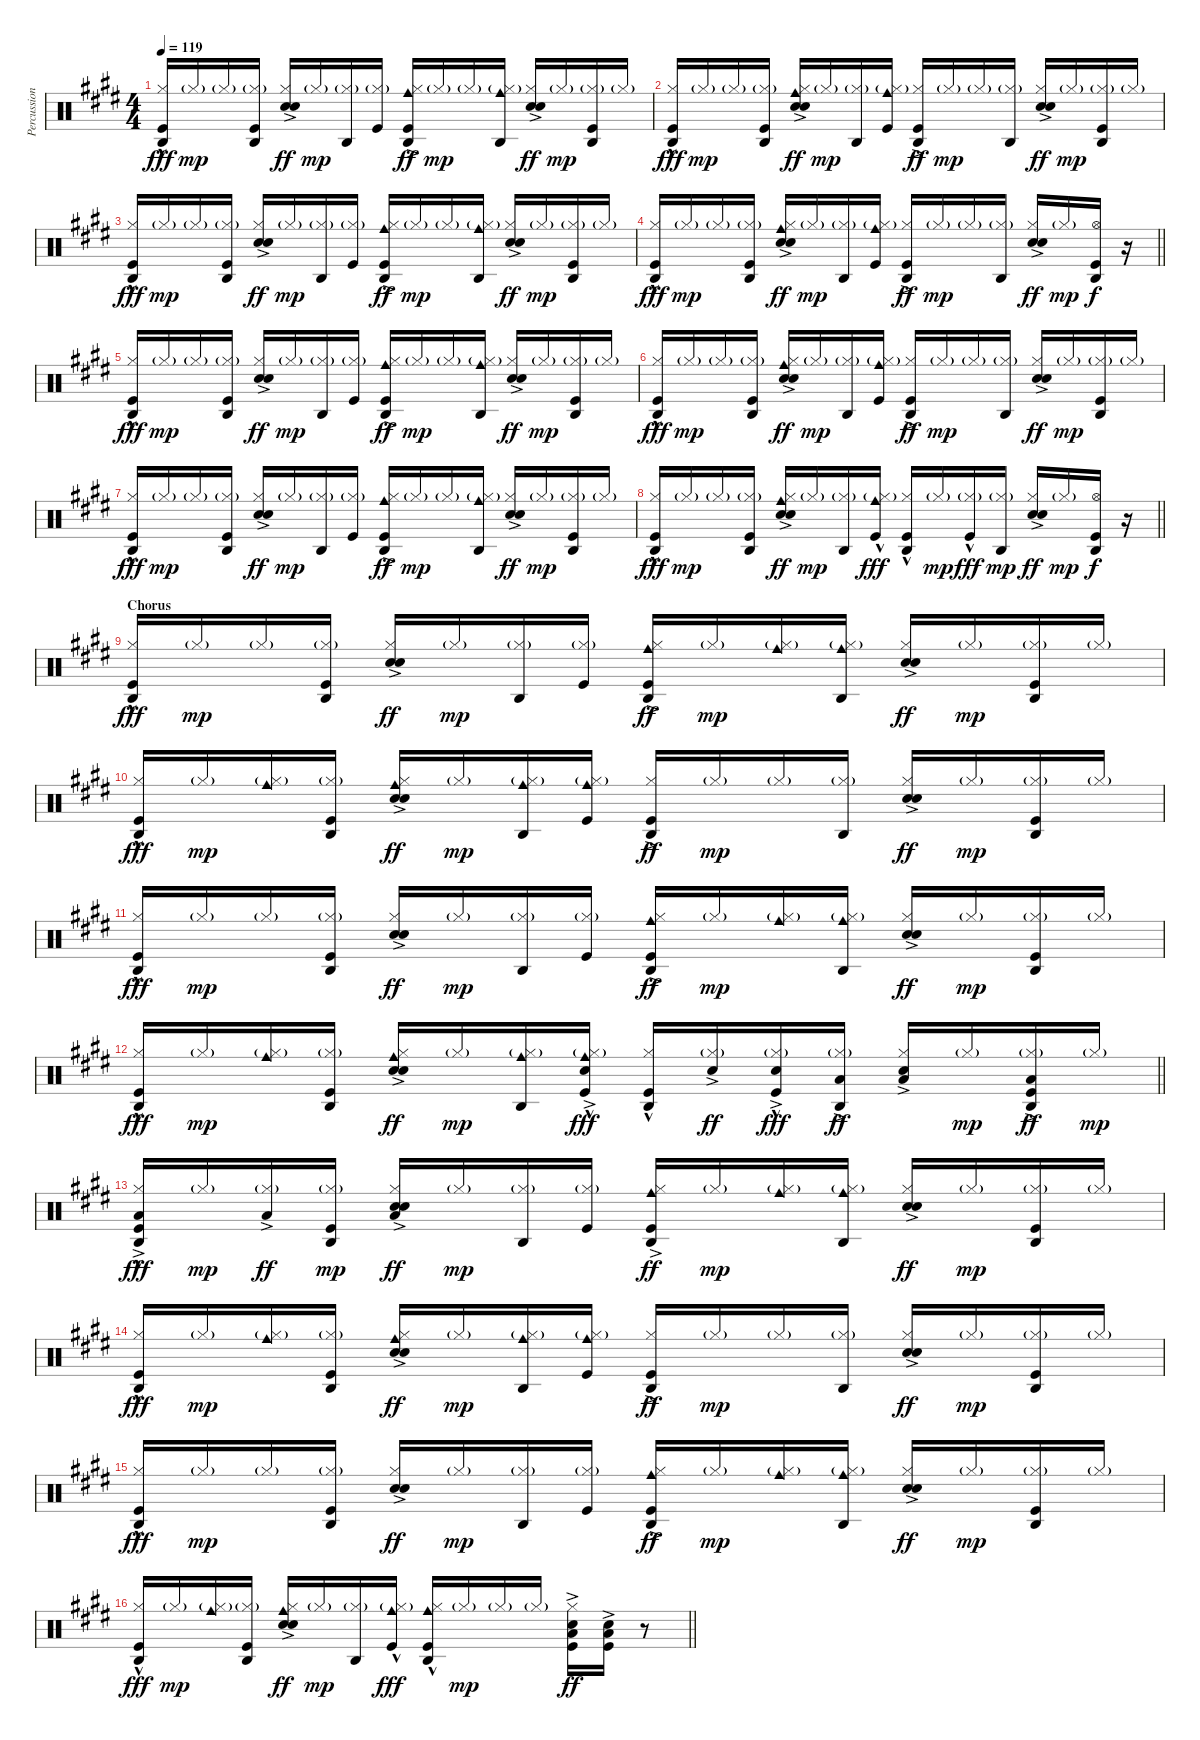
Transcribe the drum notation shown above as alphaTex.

\track ("Percussion" "Percussion") {instrument percussion}
\staff {score}
\articulation defaults
\ts (4 4)
\tempo 119
\clef neutral
\ks e
("Agogo high (hit)" "Hi-Hat (closed)" "Kick (hit)"{hac}).16{dy fff} "Hi-Hat (closed)"{g}.16{dy mp} "Hi-Hat (closed)"{g}.16 ("Agogo high (hit)" "Hi-Hat (closed)"{g} "Kick (hit)").16 ("Hi-Hat (closed)" "Hand Clap (hit)"{ac} "Snare (hit) 2"{ac}).16{dy ff} "Hi-Hat (closed)"{g}.16{dy mp} ("Agogo high (hit)" "Hi-Hat (closed)"{g}).16 ("Hi-Hat (closed)"{g} "Kick (hit)").16 ("Agogo high (hit)" "Cowbell medium (hit)" "Hi-Hat (closed)" "Kick (hit)"{ac}).16{dy ff} "Hi-Hat (closed)"{g}.16{dy mp} "Hi-Hat (closed)"{g}.16 ("Agogo high (hit)" "Cowbell medium (hit)" "Hi-Hat (closed)"{g}).16 ("Hi-Hat (closed)" "Hand Clap (hit)"{ac} "Snare (hit) 2"{ac}).16{dy ff} "Hi-Hat (closed)"{g}.16{dy mp} ("Agogo high (hit)" "Hi-Hat (closed)"{g} "Kick (hit)").16 "Hi-Hat (closed)"{g}.16 |
("Agogo high (hit)" "Hi-Hat (closed)" "Kick (hit)"{hac}).16{dy fff} "Hi-Hat (closed)"{g}.16{dy mp} "Hi-Hat (closed)"{g}.16 ("Agogo high (hit)" "Hi-Hat (closed)"{g} "Kick (hit)").16 ("Cowbell medium (hit)" "Hi-Hat (closed)" "Hand Clap (hit)"{ac} "Snare (hit) 2"{ac}).16{dy ff} "Hi-Hat (closed)"{g}.16{dy mp} ("Agogo high (hit)" "Hi-Hat (closed)"{g}).16 ("Cowbell medium (hit)" "Hi-Hat (closed)"{g} "Kick (hit)").16 ("Agogo high (hit)" "Hi-Hat (closed)" "Kick (hit)"{ac}).16{dy ff} "Hi-Hat (closed)"{g}.16{dy mp} "Hi-Hat (closed)"{g}.16 ("Agogo high (hit)" "Hi-Hat (closed)"{g}).16 ("Hi-Hat (closed)" "Hand Clap (hit)"{ac} "Snare (hit) 2"{ac}).16{dy ff} "Hi-Hat (closed)"{g}.16{dy mp} ("Agogo high (hit)" "Hi-Hat (closed)"{g} "Kick (hit)").16 "Hi-Hat (closed)"{g}.16 |
("Agogo high (hit)" "Hi-Hat (closed)" "Kick (hit)"{hac}).16{dy fff} "Hi-Hat (closed)"{g}.16{dy mp} "Hi-Hat (closed)"{g}.16 ("Agogo high (hit)" "Hi-Hat (closed)"{g} "Kick (hit)").16 ("Hi-Hat (closed)" "Hand Clap (hit)"{ac} "Snare (hit) 2"{ac}).16{dy ff} "Hi-Hat (closed)"{g}.16{dy mp} ("Agogo high (hit)" "Hi-Hat (closed)"{g}).16 ("Hi-Hat (closed)"{g} "Kick (hit)").16 ("Agogo high (hit)" "Cowbell medium (hit)" "Hi-Hat (closed)" "Kick (hit)"{ac}).16{dy ff} "Hi-Hat (closed)"{g}.16{dy mp} "Hi-Hat (closed)"{g}.16 ("Agogo high (hit)" "Cowbell medium (hit)" "Hi-Hat (closed)"{g}).16 ("Hi-Hat (closed)" "Hand Clap (hit)"{ac} "Snare (hit) 2"{ac}).16{dy ff} "Hi-Hat (closed)"{g}.16{dy mp} ("Agogo high (hit)" "Hi-Hat (closed)"{g} "Kick (hit)").16 "Hi-Hat (closed)"{g}.16 |
\barLineRight lightlight
("Agogo high (hit)" "Hi-Hat (closed)" "Kick (hit)"{hac}).16{dy fff} "Hi-Hat (closed)"{g}.16{dy mp} "Hi-Hat (closed)"{g}.16 ("Agogo high (hit)" "Hi-Hat (closed)"{g} "Kick (hit)").16 ("Cowbell medium (hit)" "Hi-Hat (closed)" "Hand Clap (hit)"{ac} "Snare (hit) 2"{ac}).16{dy ff} "Hi-Hat (closed)"{g}.16{dy mp} ("Agogo high (hit)" "Hi-Hat (closed)"{g}).16 ("Cowbell medium (hit)" "Hi-Hat (closed)"{g} "Kick (hit)").16 ("Agogo high (hit)" "Hi-Hat (closed)" "Kick (hit)"{ac}).16{dy ff} "Hi-Hat (closed)"{g}.16{dy mp} "Hi-Hat (closed)"{g}.16 ("Agogo high (hit)" "Hi-Hat (closed)"{g}).16 ("Hi-Hat (closed)" "Hand Clap (hit)"{ac} "Snare (hit) 2"{ac}).16{dy ff} "Hi-Hat (closed)"{g}.16{dy mp} ("Agogo high (hit)" "Hi-Hat (open)" "Kick (hit)").16{dy f} r.16 |
("Agogo high (hit)" "Hi-Hat (closed)" "Kick (hit)"{hac}).16{dy fff} "Hi-Hat (closed)"{g}.16{dy mp} "Hi-Hat (closed)"{g}.16 ("Agogo high (hit)" "Hi-Hat (closed)"{g} "Kick (hit)").16 ("Hi-Hat (closed)" "Hand Clap (hit)"{ac} "Snare (hit) 2"{ac}).16{dy ff} "Hi-Hat (closed)"{g}.16{dy mp} ("Agogo high (hit)" "Hi-Hat (closed)"{g}).16 ("Hi-Hat (closed)"{g} "Kick (hit)").16 ("Agogo high (hit)" "Cowbell medium (hit)" "Hi-Hat (closed)" "Kick (hit)"{ac}).16{dy ff} "Hi-Hat (closed)"{g}.16{dy mp} "Hi-Hat (closed)"{g}.16 ("Agogo high (hit)" "Cowbell medium (hit)" "Hi-Hat (closed)"{g}).16 ("Hi-Hat (closed)" "Hand Clap (hit)"{ac} "Snare (hit) 2"{ac}).16{dy ff} "Hi-Hat (closed)"{g}.16{dy mp} ("Agogo high (hit)" "Hi-Hat (closed)"{g} "Kick (hit)").16 "Hi-Hat (closed)"{g}.16 |
("Agogo high (hit)" "Hi-Hat (closed)" "Kick (hit)"{hac}).16{dy fff} "Hi-Hat (closed)"{g}.16{dy mp} "Hi-Hat (closed)"{g}.16 ("Agogo high (hit)" "Hi-Hat (closed)"{g} "Kick (hit)").16 ("Cowbell medium (hit)" "Hi-Hat (closed)" "Hand Clap (hit)"{ac} "Snare (hit) 2"{ac}).16{dy ff} "Hi-Hat (closed)"{g}.16{dy mp} ("Agogo high (hit)" "Hi-Hat (closed)"{g}).16 ("Cowbell medium (hit)" "Hi-Hat (closed)"{g} "Kick (hit)").16 ("Agogo high (hit)" "Hi-Hat (closed)" "Kick (hit)"{ac}).16{dy ff} "Hi-Hat (closed)"{g}.16{dy mp} "Hi-Hat (closed)"{g}.16 ("Agogo high (hit)" "Hi-Hat (closed)"{g}).16 ("Hi-Hat (closed)" "Hand Clap (hit)"{ac} "Snare (hit) 2"{ac}).16{dy ff} "Hi-Hat (closed)"{g}.16{dy mp} ("Agogo high (hit)" "Hi-Hat (closed)"{g} "Kick (hit)").16 "Hi-Hat (closed)"{g}.16 |
("Agogo high (hit)" "Hi-Hat (closed)" "Kick (hit)"{hac}).16{dy fff} "Hi-Hat (closed)"{g}.16{dy mp} "Hi-Hat (closed)"{g}.16 ("Agogo high (hit)" "Hi-Hat (closed)"{g} "Kick (hit)").16 ("Hi-Hat (closed)" "Hand Clap (hit)"{ac} "Snare (hit) 2"{ac}).16{dy ff} "Hi-Hat (closed)"{g}.16{dy mp} ("Agogo high (hit)" "Hi-Hat (closed)"{g}).16 ("Hi-Hat (closed)"{g} "Kick (hit)").16 ("Agogo high (hit)" "Cowbell medium (hit)" "Hi-Hat (closed)" "Kick (hit)"{ac}).16{dy ff} "Hi-Hat (closed)"{g}.16{dy mp} "Hi-Hat (closed)"{g}.16 ("Agogo high (hit)" "Cowbell medium (hit)" "Hi-Hat (closed)"{g}).16 ("Hi-Hat (closed)" "Hand Clap (hit)"{ac} "Snare (hit) 2"{ac}).16{dy ff} "Hi-Hat (closed)"{g}.16{dy mp} ("Agogo high (hit)" "Hi-Hat (closed)"{g} "Kick (hit)").16 "Hi-Hat (closed)"{g}.16 |
\barLineRight lightlight
("Agogo high (hit)" "Hi-Hat (closed)" "Kick (hit)"{hac}).16{dy fff} "Hi-Hat (closed)"{g}.16{dy mp} "Hi-Hat (closed)"{g}.16 ("Agogo high (hit)" "Hi-Hat (closed)"{g} "Kick (hit)").16 ("Cowbell medium (hit)" "Hi-Hat (closed)" "Hand Clap (hit)"{ac} "Snare (hit) 2"{ac}).16{dy ff} "Hi-Hat (closed)"{g}.16{dy mp} ("Agogo high (hit)" "Hi-Hat (closed)"{g}).16 ("Cowbell medium (hit)" "Hi-Hat (closed)"{g} "Kick (hit)"{hac}).16{dy fff} ("Agogo high (hit)" "Hi-Hat (closed)" "Kick (hit)"{hac}).16 "Hi-Hat (closed)"{g}.16{dy mp} ("Hi-Hat (closed)"{g} "Kick (hit)"{hac}).16{dy fff} ("Agogo high (hit)" "Hi-Hat (closed)"{g}).16{dy mp} ("Hi-Hat (closed)" "Hand Clap (hit)"{ac} "Snare (hit) 2"{ac}).16{dy ff} "Hi-Hat (closed)"{g}.16{dy mp} ("Agogo high (hit)" "Hi-Hat (open)" "Kick (hit)").16{dy f} r.16 |
\section ("" "Chorus")
("Agogo high (hit)" "Hi-Hat (closed)" "Kick (hit)"{hac}).16{dy fff} "Hi-Hat (closed)"{g}.16{dy mp} "Hi-Hat (closed)"{g}.16 ("Agogo high (hit)" "Hi-Hat (closed)"{g} "Kick (hit)").16 ("Hi-Hat (closed)" "Hand Clap (hit)"{ac} "Snare (hit) 2"{ac}).16{dy ff} "Hi-Hat (closed)"{g}.16{dy mp} ("Agogo high (hit)" "Hi-Hat (closed)"{g}).16 ("Hi-Hat (closed)"{g} "Kick (hit)").16 ("Agogo high (hit)" "Cowbell medium (hit)" "Hi-Hat (closed)" "Kick (hit)"{ac}).16{dy ff} "Hi-Hat (closed)"{g}.16{dy mp} ("Cowbell medium (hit)" "Hi-Hat (closed)"{g}).16 ("Agogo high (hit)" "Cowbell medium (hit)" "Hi-Hat (closed)"{g}).16 ("Hi-Hat (closed)" "Hand Clap (hit)"{ac} "Snare (hit) 2"{ac}).16{dy ff} "Hi-Hat (closed)"{g}.16{dy mp} ("Agogo high (hit)" "Hi-Hat (closed)"{g} "Kick (hit)").16 "Hi-Hat (closed)"{g}.16 |
("Agogo high (hit)" "Hi-Hat (closed)" "Kick (hit)"{hac}).16{dy fff} "Hi-Hat (closed)"{g}.16{dy mp} ("Cowbell medium (hit)" "Hi-Hat (closed)"{g}).16 ("Agogo high (hit)" "Hi-Hat (closed)"{g} "Kick (hit)").16 ("Cowbell medium (hit)" "Hi-Hat (closed)" "Hand Clap (hit)"{ac} "Snare (hit) 2"{ac}).16{dy ff} "Hi-Hat (closed)"{g}.16{dy mp} ("Agogo high (hit)" "Cowbell medium (hit)" "Hi-Hat (closed)"{g}).16 ("Cowbell medium (hit)" "Hi-Hat (closed)"{g} "Kick (hit)").16 ("Agogo high (hit)" "Hi-Hat (closed)" "Kick (hit)"{ac}).16{dy ff} "Hi-Hat (closed)"{g}.16{dy mp} "Hi-Hat (closed)"{g}.16 ("Agogo high (hit)" "Hi-Hat (closed)"{g}).16 ("Hi-Hat (closed)" "Hand Clap (hit)"{ac} "Snare (hit) 2"{ac}).16{dy ff} "Hi-Hat (closed)"{g}.16{dy mp} ("Agogo high (hit)" "Hi-Hat (closed)"{g} "Kick (hit)").16 "Hi-Hat (closed)"{g}.16 |
("Agogo high (hit)" "Hi-Hat (closed)" "Kick (hit)"{hac}).16{dy fff} "Hi-Hat (closed)"{g}.16{dy mp} "Hi-Hat (closed)"{g}.16 ("Agogo high (hit)" "Hi-Hat (closed)"{g} "Kick (hit)").16 ("Hi-Hat (closed)" "Hand Clap (hit)"{ac} "Snare (hit) 2"{ac}).16{dy ff} "Hi-Hat (closed)"{g}.16{dy mp} ("Agogo high (hit)" "Hi-Hat (closed)"{g}).16 ("Hi-Hat (closed)"{g} "Kick (hit)").16 ("Agogo high (hit)" "Cowbell medium (hit)" "Hi-Hat (closed)" "Kick (hit)"{ac}).16{dy ff} "Hi-Hat (closed)"{g}.16{dy mp} ("Cowbell medium (hit)" "Hi-Hat (closed)"{g}).16 ("Agogo high (hit)" "Cowbell medium (hit)" "Hi-Hat (closed)"{g}).16 ("Hi-Hat (closed)" "Hand Clap (hit)"{ac} "Snare (hit) 2"{ac}).16{dy ff} "Hi-Hat (closed)"{g}.16{dy mp} ("Agogo high (hit)" "Hi-Hat (closed)"{g} "Kick (hit)").16 "Hi-Hat (closed)"{g}.16 |
\barLineRight lightlight
("Agogo high (hit)" "Hi-Hat (closed)" "Kick (hit)"{hac}).16{dy fff} "Hi-Hat (closed)"{g}.16{dy mp} ("Cowbell medium (hit)" "Hi-Hat (closed)"{g}).16 ("Agogo high (hit)" "Hi-Hat (closed)"{g} "Kick (hit)").16 ("Cowbell medium (hit)" "Hi-Hat (closed)" "Hand Clap (hit)"{ac} "Snare (hit) 2"{ac}).16{dy ff} "Hi-Hat (closed)"{g}.16{dy mp} ("Agogo high (hit)" "Cowbell medium (hit)" "Hi-Hat (closed)"{g}).16 ("Cowbell medium (hit)" "Hi-Hat (closed)"{g} "Hand Clap (hit)"{ac} "Kick (hit)"{hac}).16{dy fff} ("Agogo high (hit)" "Hi-Hat (closed)" "Kick (hit)"{hac}).16 ("Hi-Hat (closed)"{g} "Hand Clap (hit)"{ac}).16{dy ff} ("Hi-Hat (closed)"{g} "Hand Clap (hit)"{ac} "Kick (hit)"{hac}).16{dy fff} ("Agogo high (hit)" "Hi-Hat (closed)"{g} "Low Tom (hit)"{ac}).16{dy ff} ("Hi-Hat (closed)" "Hand Clap (hit)"{ac} "Low Tom (hit)"{ac}).16 "Hi-Hat (closed)"{g}.16{dy mp} ("Agogo high (hit)" "Hi-Hat (closed)"{g} "Low Tom (hit)"{ac} "Kick (hit)").16{dy ff} "Hi-Hat (closed)"{g}.16{dy mp} |
("Agogo high (hit)" "Hi-Hat (closed)" "Low Tom (hit)"{ac} "Kick (hit)"{hac}).16{dy fff} "Hi-Hat (closed)"{g}.16{dy mp} ("Hi-Hat (closed)"{g} "Low Tom (hit)"{ac}).16{dy ff} ("Agogo high (hit)" "Hi-Hat (closed)"{g} "Kick (hit)").16{dy mp} ("Hi-Hat (closed)" "Hand Clap (hit)"{ac} "Snare (hit) 2"{ac} "Low Tom (hit)"{ac}).16{dy ff} "Hi-Hat (closed)"{g}.16{dy mp} ("Agogo high (hit)" "Hi-Hat (closed)"{g}).16 ("Hi-Hat (closed)"{g} "Kick (hit)").16 ("Agogo high (hit)" "Cowbell medium (hit)" "Hi-Hat (closed)" "Kick (hit)"{ac}).16{dy ff} "Hi-Hat (closed)"{g}.16{dy mp} ("Cowbell medium (hit)" "Hi-Hat (closed)"{g}).16 ("Agogo high (hit)" "Cowbell medium (hit)" "Hi-Hat (closed)"{g}).16 ("Hi-Hat (closed)" "Hand Clap (hit)"{ac} "Snare (hit) 2"{ac}).16{dy ff} "Hi-Hat (closed)"{g}.16{dy mp} ("Agogo high (hit)" "Hi-Hat (closed)"{g} "Kick (hit)").16 "Hi-Hat (closed)"{g}.16 |
("Agogo high (hit)" "Hi-Hat (closed)" "Kick (hit)"{hac}).16{dy fff} "Hi-Hat (closed)"{g}.16{dy mp} ("Cowbell medium (hit)" "Hi-Hat (closed)"{g}).16 ("Agogo high (hit)" "Hi-Hat (closed)"{g} "Kick (hit)").16 ("Cowbell medium (hit)" "Hi-Hat (closed)" "Hand Clap (hit)"{ac} "Snare (hit) 2"{ac}).16{dy ff} "Hi-Hat (closed)"{g}.16{dy mp} ("Agogo high (hit)" "Cowbell medium (hit)" "Hi-Hat (closed)"{g}).16 ("Cowbell medium (hit)" "Hi-Hat (closed)"{g} "Kick (hit)").16 ("Agogo high (hit)" "Hi-Hat (closed)" "Kick (hit)"{ac}).16{dy ff} "Hi-Hat (closed)"{g}.16{dy mp} "Hi-Hat (closed)"{g}.16 ("Agogo high (hit)" "Hi-Hat (closed)"{g}).16 ("Hi-Hat (closed)" "Hand Clap (hit)"{ac} "Snare (hit) 2"{ac}).16{dy ff} "Hi-Hat (closed)"{g}.16{dy mp} ("Agogo high (hit)" "Hi-Hat (closed)"{g} "Kick (hit)").16 "Hi-Hat (closed)"{g}.16 |
("Agogo high (hit)" "Hi-Hat (closed)" "Kick (hit)"{hac}).16{dy fff} "Hi-Hat (closed)"{g}.16{dy mp} "Hi-Hat (closed)"{g}.16 ("Agogo high (hit)" "Hi-Hat (closed)"{g} "Kick (hit)").16 ("Hi-Hat (closed)" "Hand Clap (hit)"{ac} "Snare (hit) 2"{ac}).16{dy ff} "Hi-Hat (closed)"{g}.16{dy mp} ("Agogo high (hit)" "Hi-Hat (closed)"{g}).16 ("Hi-Hat (closed)"{g} "Kick (hit)").16 ("Agogo high (hit)" "Cowbell medium (hit)" "Hi-Hat (closed)" "Kick (hit)"{ac}).16{dy ff} "Hi-Hat (closed)"{g}.16{dy mp} ("Cowbell medium (hit)" "Hi-Hat (closed)"{g}).16 ("Agogo high (hit)" "Cowbell medium (hit)" "Hi-Hat (closed)"{g}).16 ("Hi-Hat (closed)" "Hand Clap (hit)"{ac} "Snare (hit) 2"{ac}).16{dy ff} "Hi-Hat (closed)"{g}.16{dy mp} ("Agogo high (hit)" "Hi-Hat (closed)"{g} "Kick (hit)").16 "Hi-Hat (closed)"{g}.16 |
\barLineRight lightlight
("Agogo high (hit)" "Hi-Hat (closed)" "Kick (hit)"{hac}).16{dy fff} "Hi-Hat (closed)"{g}.16{dy mp} ("Cowbell medium (hit)" "Hi-Hat (closed)"{g}).16 ("Agogo high (hit)" "Hi-Hat (closed)"{g} "Kick (hit)").16 ("Cowbell medium (hit)" "Hi-Hat (closed)" "Hand Clap (hit)"{ac} "Snare (hit) 2"{ac}).16{dy ff} "Hi-Hat (closed)"{g}.16{dy mp} ("Agogo high (hit)" "Hi-Hat (closed)"{g}).16 ("Cowbell medium (hit)" "Hi-Hat (closed)"{g} "Kick (hit)"{hac}).16{dy fff} ("Agogo high (hit)" "Cowbell medium (hit)" "Hi-Hat (closed)" "Kick (hit)"{hac}).16 "Hi-Hat (closed)"{g}.16{dy mp} "Hi-Hat (closed)"{g}.16 "Hi-Hat (closed)"{g}.16 ("Hi-Hat (closed)" "Low Tom (hit)"{ac} "Snare (hit) 2"{ac} "Kick (hit)").16{dy ff} ("Low Tom (hit)"{ac} "Snare (hit) 2"{ac} "Kick (hit)").16 r.8
